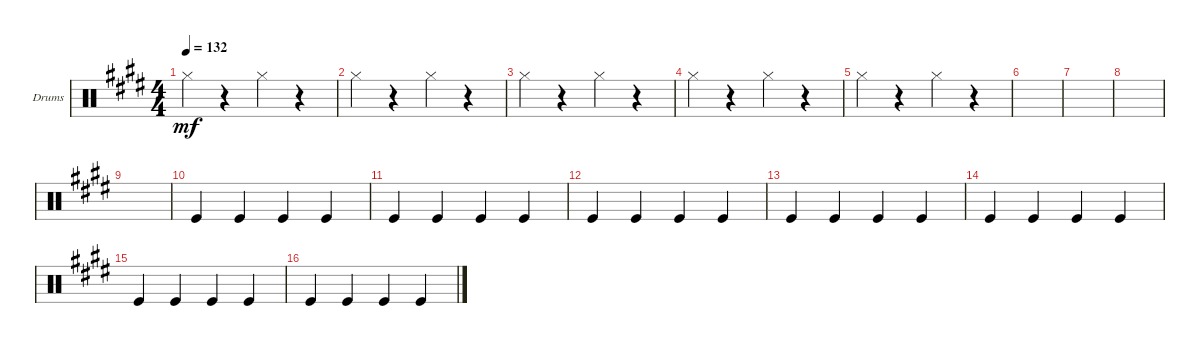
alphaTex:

\defaultSystemsLayout 4
\bracketExtendMode groupsimilarinstruments
\firstSystemTrackNameOrientation horizontal
\otherSystemsTrackNameOrientation horizontal
\track ("Drumkit" "Drums") {instrument percussion}
\staff {score}
\articulation defaults
\ts (4 4)
\tempo 132
\clef neutral
\ks c#minor "Hi-Hat (closed)".4{dy mf}
r.4 "Hi-Hat (closed)".4 r.4 |
"Hi-Hat (closed)".4 r.4 "Hi-Hat (closed)".4 r.4 |
"Hi-Hat (closed)".4 r.4 "Hi-Hat (closed)".4 r.4 |
"Hi-Hat (closed)".4 r.4 "Hi-Hat (closed)".4 r.4 |
"Hi-Hat (closed)".4 r.4 "Hi-Hat (closed)".4 r.4 |
|
|
|
|
"Kick (hit)".4 "Kick (hit)".4 "Kick (hit)".4 "Kick (hit)".4 |
"Kick (hit)".4 "Kick (hit)".4 "Kick (hit)".4 "Kick (hit)".4 |
"Kick (hit)".4 "Kick (hit)".4 "Kick (hit)".4 "Kick (hit)".4 |
"Kick (hit)".4 "Kick (hit)".4 "Kick (hit)".4 "Kick (hit)".4 |
"Kick (hit)".4 "Kick (hit)".4 "Kick (hit)".4 "Kick (hit)".4 |
"Kick (hit)".4 "Kick (hit)".4 "Kick (hit)".4 "Kick (hit)".4 |
"Kick (hit)".4 "Kick (hit)".4 "Kick (hit)".4 "Kick (hit)".4
